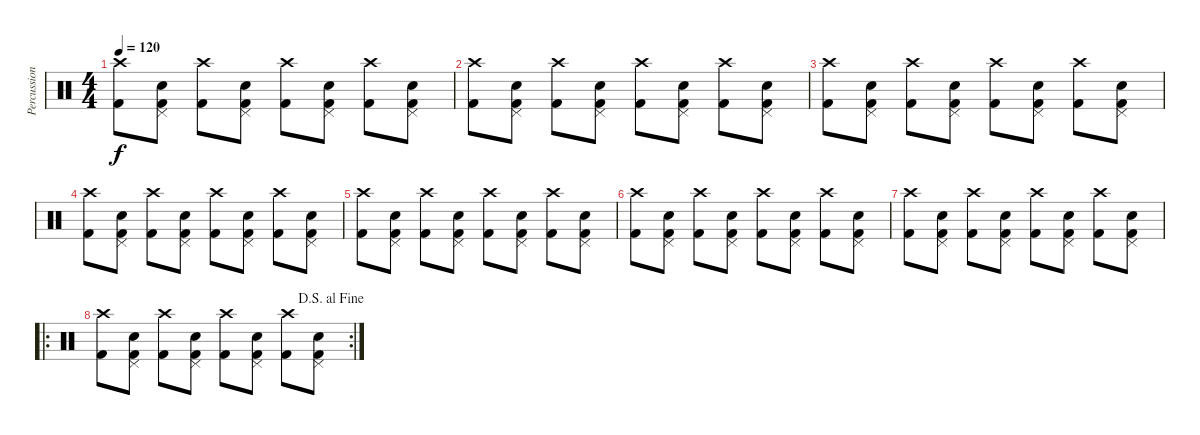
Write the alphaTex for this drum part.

\track ("Percussion" "Percussion") {instrument percussion}
\staff {score}
\articulation defaults
\ts (4 4)
\tempo 120
\clef neutral
\ks c
("Kick (hit) 2" "Crash high (hit)").8{dy f} ("Kick (hit) 2" "Electric Snare (hit)" "Pedal Hi-Hat (hit)").8 ("Kick (hit) 2" "Crash high (hit)").8 ("Kick (hit) 2" "Electric Snare (hit)" "Pedal Hi-Hat (hit)").8 ("Kick (hit) 2" "Crash high (hit)").8 ("Kick (hit) 2" "Electric Snare (hit)" "Pedal Hi-Hat (hit)").8 ("Kick (hit) 2" "Crash high (hit)").8 ("Kick (hit) 2" "Electric Snare (hit)" "Pedal Hi-Hat (hit)").8 |
("Kick (hit) 2" "Crash high (hit)").8 ("Kick (hit) 2" "Electric Snare (hit)" "Pedal Hi-Hat (hit)").8 ("Kick (hit) 2" "Crash high (hit)").8 ("Kick (hit) 2" "Electric Snare (hit)" "Pedal Hi-Hat (hit)").8 ("Kick (hit) 2" "Crash high (hit)").8 ("Kick (hit) 2" "Electric Snare (hit)" "Pedal Hi-Hat (hit)").8 ("Kick (hit) 2" "Crash high (hit)").8 ("Kick (hit) 2" "Electric Snare (hit)" "Pedal Hi-Hat (hit)").8 |
("Kick (hit) 2" "Crash high (hit)").8 ("Kick (hit) 2" "Electric Snare (hit)" "Pedal Hi-Hat (hit)").8 ("Kick (hit) 2" "Crash high (hit)").8 ("Kick (hit) 2" "Electric Snare (hit)" "Pedal Hi-Hat (hit)").8 ("Kick (hit) 2" "Crash high (hit)").8 ("Kick (hit) 2" "Electric Snare (hit)" "Pedal Hi-Hat (hit)").8 ("Kick (hit) 2" "Crash high (hit)").8 ("Kick (hit) 2" "Electric Snare (hit)" "Pedal Hi-Hat (hit)").8 |
("Kick (hit) 2" "Crash high (hit)").8 ("Kick (hit) 2" "Electric Snare (hit)" "Pedal Hi-Hat (hit)").8 ("Kick (hit) 2" "Crash high (hit)").8 ("Kick (hit) 2" "Electric Snare (hit)" "Pedal Hi-Hat (hit)").8 ("Kick (hit) 2" "Crash high (hit)").8 ("Kick (hit) 2" "Electric Snare (hit)" "Pedal Hi-Hat (hit)").8 ("Kick (hit) 2" "Crash high (hit)").8 ("Kick (hit) 2" "Electric Snare (hit)" "Pedal Hi-Hat (hit)").8 |
("Kick (hit) 2" "Crash high (hit)").8 ("Kick (hit) 2" "Electric Snare (hit)" "Pedal Hi-Hat (hit)").8 ("Kick (hit) 2" "Crash high (hit)").8 ("Kick (hit) 2" "Electric Snare (hit)" "Pedal Hi-Hat (hit)").8 ("Kick (hit) 2" "Crash high (hit)").8 ("Kick (hit) 2" "Electric Snare (hit)" "Pedal Hi-Hat (hit)").8 ("Kick (hit) 2" "Crash high (hit)").8 ("Kick (hit) 2" "Electric Snare (hit)" "Pedal Hi-Hat (hit)").8 |
("Kick (hit) 2" "Crash high (hit)").8 ("Kick (hit) 2" "Electric Snare (hit)" "Pedal Hi-Hat (hit)").8 ("Kick (hit) 2" "Crash high (hit)").8 ("Kick (hit) 2" "Electric Snare (hit)" "Pedal Hi-Hat (hit)").8 ("Kick (hit) 2" "Crash high (hit)").8 ("Kick (hit) 2" "Electric Snare (hit)" "Pedal Hi-Hat (hit)").8 ("Kick (hit) 2" "Crash high (hit)").8 ("Kick (hit) 2" "Electric Snare (hit)" "Pedal Hi-Hat (hit)").8 |
("Kick (hit) 2" "Crash high (hit)").8 ("Kick (hit) 2" "Electric Snare (hit)" "Pedal Hi-Hat (hit)").8 ("Kick (hit) 2" "Crash high (hit)").8 ("Kick (hit) 2" "Electric Snare (hit)" "Pedal Hi-Hat (hit)").8 ("Kick (hit) 2" "Crash high (hit)").8 ("Kick (hit) 2" "Electric Snare (hit)" "Pedal Hi-Hat (hit)").8 ("Kick (hit) 2" "Crash high (hit)").8 ("Kick (hit) 2" "Electric Snare (hit)" "Pedal Hi-Hat (hit)").8 |
\ro
\rc 2
\jump dalsegnoalfine
("Kick (hit) 2" "Crash high (hit)").8 ("Kick (hit) 2" "Electric Snare (hit)" "Pedal Hi-Hat (hit)").8 ("Kick (hit) 2" "Crash high (hit)").8 ("Kick (hit) 2" "Electric Snare (hit)" "Pedal Hi-Hat (hit)").8 ("Kick (hit) 2" "Crash high (hit)").8 ("Kick (hit) 2" "Electric Snare (hit)" "Pedal Hi-Hat (hit)").8 ("Kick (hit) 2" "Crash high (hit)").8 ("Kick (hit) 2" "Electric Snare (hit)" "Pedal Hi-Hat (hit)").8
